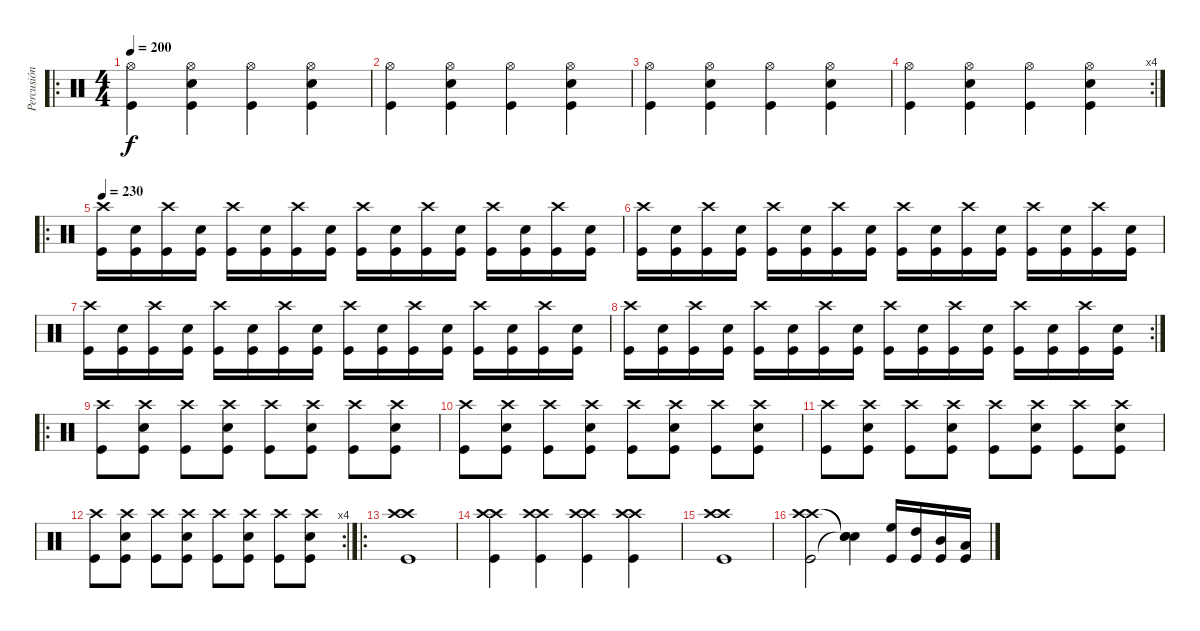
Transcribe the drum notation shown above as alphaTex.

\track ("Percusión" "Percusión") {instrument percussion}
\staff {score}
\articulation defaults
\ro
\ts (4 4)
\tempo 200
\clef neutral
\ks c
("Hi-Hat (open)" "Kick (hit)").4{dy f} ("Hi-Hat (open)" "Electric Snare (hit)" "Kick (hit)").4 ("Hi-Hat (open)" "Kick (hit)").4 ("Hi-Hat (open)" "Electric Snare (hit)" "Kick (hit)").4 |
("Hi-Hat (open)" "Kick (hit)").4 ("Hi-Hat (open)" "Electric Snare (hit)" "Kick (hit)").4 ("Hi-Hat (open)" "Kick (hit)").4 ("Hi-Hat (open)" "Electric Snare (hit)" "Kick (hit)").4 |
("Hi-Hat (open)" "Kick (hit)").4 ("Hi-Hat (open)" "Electric Snare (hit)" "Kick (hit)").4 ("Hi-Hat (open)" "Kick (hit)").4 ("Hi-Hat (open)" "Electric Snare (hit)" "Kick (hit)").4 |
\rc 4
("Hi-Hat (open)" "Kick (hit)").4 ("Hi-Hat (open)" "Electric Snare (hit)" "Kick (hit)").4 ("Hi-Hat (open)" "Kick (hit)").4 ("Hi-Hat (open)" "Electric Snare (hit)" "Kick (hit)").4 |
\ro
\tempo 230
("Crash high (hit)" "Kick (hit)").16 ("Electric Snare (hit)" "Kick (hit)").16 ("Crash high (hit)" "Kick (hit)").16 ("Electric Snare (hit)" "Kick (hit)").16 ("Crash high (hit)" "Kick (hit)").16 ("Electric Snare (hit)" "Kick (hit)").16 ("Crash high (hit)" "Kick (hit)").16 ("Electric Snare (hit)" "Kick (hit)").16 ("Crash high (hit)" "Kick (hit)").16 ("Electric Snare (hit)" "Kick (hit)").16 ("Crash high (hit)" "Kick (hit)").16 ("Electric Snare (hit)" "Kick (hit)").16 ("Crash high (hit)" "Kick (hit)").16 ("Electric Snare (hit)" "Kick (hit)").16 ("Crash high (hit)" "Kick (hit)").16 ("Electric Snare (hit)" "Kick (hit)").16 |
("Crash high (hit)" "Kick (hit)").16 ("Electric Snare (hit)" "Kick (hit)").16 ("Crash high (hit)" "Kick (hit)").16 ("Electric Snare (hit)" "Kick (hit)").16 ("Crash high (hit)" "Kick (hit)").16 ("Electric Snare (hit)" "Kick (hit)").16 ("Crash high (hit)" "Kick (hit)").16 ("Electric Snare (hit)" "Kick (hit)").16 ("Crash high (hit)" "Kick (hit)").16 ("Electric Snare (hit)" "Kick (hit)").16 ("Crash high (hit)" "Kick (hit)").16 ("Electric Snare (hit)" "Kick (hit)").16 ("Crash high (hit)" "Kick (hit)").16 ("Electric Snare (hit)" "Kick (hit)").16 ("Crash high (hit)" "Kick (hit)").16 ("Electric Snare (hit)" "Kick (hit)").16 |
("Crash high (hit)" "Kick (hit)").16 ("Electric Snare (hit)" "Kick (hit)").16 ("Crash high (hit)" "Kick (hit)").16 ("Electric Snare (hit)" "Kick (hit)").16 ("Crash high (hit)" "Kick (hit)").16 ("Electric Snare (hit)" "Kick (hit)").16 ("Crash high (hit)" "Kick (hit)").16 ("Electric Snare (hit)" "Kick (hit)").16 ("Crash high (hit)" "Kick (hit)").16 ("Electric Snare (hit)" "Kick (hit)").16 ("Crash high (hit)" "Kick (hit)").16 ("Electric Snare (hit)" "Kick (hit)").16 ("Crash high (hit)" "Kick (hit)").16 ("Electric Snare (hit)" "Kick (hit)").16 ("Crash high (hit)" "Kick (hit)").16 ("Electric Snare (hit)" "Kick (hit)").16 |
\rc 2
("Crash high (hit)" "Kick (hit)").16 ("Electric Snare (hit)" "Kick (hit)").16 ("Crash high (hit)" "Kick (hit)").16 ("Electric Snare (hit)" "Kick (hit)").16 ("Crash high (hit)" "Kick (hit)").16 ("Electric Snare (hit)" "Kick (hit)").16 ("Crash high (hit)" "Kick (hit)").16 ("Electric Snare (hit)" "Kick (hit)").16 ("Crash high (hit)" "Kick (hit)").16 ("Electric Snare (hit)" "Kick (hit)").16 ("Crash high (hit)" "Kick (hit)").16 ("Electric Snare (hit)" "Kick (hit)").16 ("Crash high (hit)" "Kick (hit)").16 ("Electric Snare (hit)" "Kick (hit)").16 ("Crash high (hit)" "Kick (hit)").16 ("Electric Snare (hit)" "Kick (hit)").16 |
\ro
("Crash high (hit)" "Kick (hit)").8 ("Crash high (hit)" "Electric Snare (hit)" "Kick (hit)").8 ("Crash high (hit)" "Kick (hit)").8 ("Crash high (hit)" "Electric Snare (hit)" "Kick (hit)").8 ("Crash high (hit)" "Kick (hit)").8 ("Crash high (hit)" "Electric Snare (hit)" "Kick (hit)").8 ("Crash high (hit)" "Kick (hit)").8 ("Crash high (hit)" "Electric Snare (hit)" "Kick (hit)").8 |
("Crash high (hit)" "Kick (hit)").8 ("Crash high (hit)" "Electric Snare (hit)" "Kick (hit)").8 ("Crash high (hit)" "Kick (hit)").8 ("Crash high (hit)" "Electric Snare (hit)" "Kick (hit)").8 ("Crash high (hit)" "Kick (hit)").8 ("Crash high (hit)" "Electric Snare (hit)" "Kick (hit)").8 ("Crash high (hit)" "Kick (hit)").8 ("Crash high (hit)" "Electric Snare (hit)" "Kick (hit)").8 |
("Crash high (hit)" "Kick (hit)").8 ("Crash high (hit)" "Electric Snare (hit)" "Kick (hit)").8 ("Crash high (hit)" "Kick (hit)").8 ("Crash high (hit)" "Electric Snare (hit)" "Kick (hit)").8 ("Crash high (hit)" "Kick (hit)").8 ("Crash high (hit)" "Electric Snare (hit)" "Kick (hit)").8 ("Crash high (hit)" "Kick (hit)").8 ("Crash high (hit)" "Electric Snare (hit)" "Kick (hit)").8 |
\rc 4
("Crash high (hit)" "Kick (hit)").8 ("Crash high (hit)" "Electric Snare (hit)" "Kick (hit)").8 ("Crash high (hit)" "Kick (hit)").8 ("Crash high (hit)" "Electric Snare (hit)" "Kick (hit)").8 ("Crash high (hit)" "Kick (hit)").8 ("Crash high (hit)" "Electric Snare (hit)" "Kick (hit)").8 ("Crash high (hit)" "Kick (hit)").8 ("Crash high (hit)" "Electric Snare (hit)" "Kick (hit)").8 |
\ro
("Crash high (hit)" "Crash high (hit)" "Kick (hit)").1 |
("Crash high (hit)" "Crash high (hit)" "Kick (hit)").4 ("Crash high (hit)" "Crash high (hit)" "Kick (hit)").4 ("Crash high (hit)" "Crash high (hit)" "Kick (hit)").4 ("Crash high (hit)" "Crash high (hit)" "Kick (hit)").4 |
("Crash high (hit)" "Crash high (hit)" "Kick (hit)").1 |
("Crash high (hit)" "Crash high (hit)" "Kick (hit)").2 ("Snare (hit)"{t} "Snare (hit)"{t} "Snare (hit)"{t}).4 ("High Floor Tom (hit)" "Kick (hit)").16 ("High Tom (hit)" "Kick (hit)").16 ("Mid Tom (hit)" "Kick (hit)").16 ("Low Tom (hit)" "Kick (hit)").16
